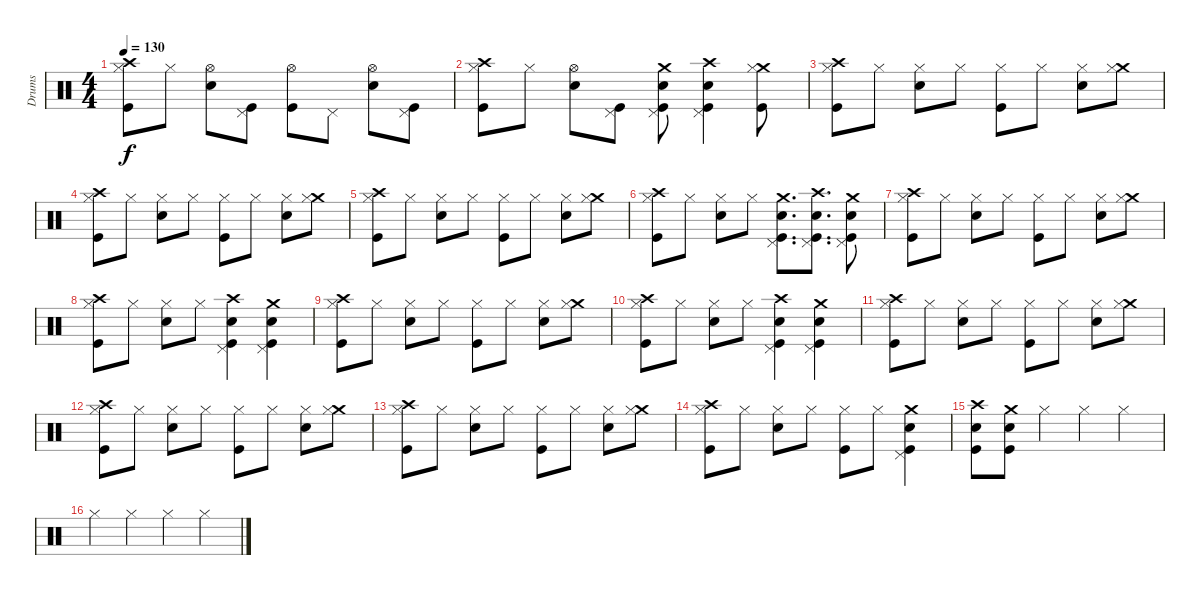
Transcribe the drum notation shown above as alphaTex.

\track ("Drums" "Drums") {instrument percussion}
\staff {score}
\articulation defaults
\ts (4 4)
\tempo 130
\clef neutral
\ks c
("Crash high (hit)" "Hi-Hat (closed)" "Kick (hit)").8{dy f} "Hi-Hat (closed)".8 ("Hi-Hat (open)" "Electric Snare (hit)").8 ("Pedal Hi-Hat (hit)" "Kick (hit)").8 ("Hi-Hat (open)" "Kick (hit)").8 "Pedal Hi-Hat (hit)".8 ("Hi-Hat (open)" "Electric Snare (hit)").8 ("Pedal Hi-Hat (hit)" "Kick (hit)").8 |
("Crash high (hit)" "Hi-Hat (closed)" "Kick (hit)").8 "Hi-Hat (closed)".8 ("Hi-Hat (open)" "Electric Snare (hit)").8 ("Pedal Hi-Hat (hit)" "Kick (hit)").8 ("Crash medium (hit)" "Pedal Hi-Hat (hit)" "Electric Snare (hit)" "Kick (hit)").8 ("Crash high (hit)" "Pedal Hi-Hat (hit)" "Electric Snare (hit)" "Kick (hit)").4 ("Crash medium (hit)" "Hi-Hat (closed)" "Kick (hit)").8 |
("Crash high (hit)" "Hi-Hat (closed)" "Kick (hit)").8 "Hi-Hat (closed)".8 ("Hi-Hat (closed)" "Electric Snare (hit)").8 "Hi-Hat (closed)".8 ("Hi-Hat (closed)" "Kick (hit)").8 "Hi-Hat (closed)".8 ("Hi-Hat (closed)" "Electric Snare (hit)").8 ("Crash medium (hit)" "Hi-Hat (closed)").8 |
("Crash high (hit)" "Hi-Hat (closed)" "Kick (hit)").8 "Hi-Hat (closed)".8 ("Hi-Hat (closed)" "Electric Snare (hit)").8 "Hi-Hat (closed)".8 ("Hi-Hat (closed)" "Kick (hit)").8 "Hi-Hat (closed)".8 ("Hi-Hat (closed)" "Electric Snare (hit)").8 ("Crash medium (hit)" "Hi-Hat (closed)").8 |
("Crash high (hit)" "Hi-Hat (closed)" "Kick (hit)").8 "Hi-Hat (closed)".8 ("Hi-Hat (closed)" "Electric Snare (hit)").8 "Hi-Hat (closed)".8 ("Hi-Hat (closed)" "Kick (hit)").8 "Hi-Hat (closed)".8 ("Hi-Hat (closed)" "Electric Snare (hit)").8 ("Crash medium (hit)" "Hi-Hat (closed)").8 |
("Crash high (hit)" "Hi-Hat (closed)" "Kick (hit)").8 "Hi-Hat (closed)".8 ("Hi-Hat (closed)" "Electric Snare (hit)").8 "Hi-Hat (closed)".8 ("Crash medium (hit)" "Pedal Hi-Hat (hit)" "Electric Snare (hit)" "Kick (hit)").8{d} ("Crash high (hit)" "Pedal Hi-Hat (hit)" "Electric Snare (hit)" "Kick (hit)").8{d} ("Crash medium (hit)" "Pedal Hi-Hat (hit)" "Electric Snare (hit)" "Kick (hit)").8 |
("Crash high (hit)" "Hi-Hat (closed)" "Kick (hit)").8 "Hi-Hat (closed)".8 ("Hi-Hat (closed)" "Electric Snare (hit)").8 "Hi-Hat (closed)".8 ("Hi-Hat (closed)" "Kick (hit)").8 "Hi-Hat (closed)".8 ("Hi-Hat (closed)" "Electric Snare (hit)").8 ("Crash medium (hit)" "Hi-Hat (closed)").8 |
("Crash high (hit)" "Hi-Hat (closed)" "Kick (hit)").8 "Hi-Hat (closed)".8 ("Hi-Hat (closed)" "Electric Snare (hit)").8 "Hi-Hat (closed)".8 ("Crash high (hit)" "Pedal Hi-Hat (hit)" "Electric Snare (hit)" "Kick (hit)").4 ("Crash medium (hit)" "Pedal Hi-Hat (hit)" "Electric Snare (hit)" "Kick (hit)").4 |
("Crash high (hit)" "Hi-Hat (closed)" "Kick (hit)").8 "Hi-Hat (closed)".8 ("Hi-Hat (closed)" "Electric Snare (hit)").8 "Hi-Hat (closed)".8 ("Hi-Hat (closed)" "Kick (hit)").8 "Hi-Hat (closed)".8 ("Hi-Hat (closed)" "Electric Snare (hit)").8 ("Crash medium (hit)" "Hi-Hat (closed)").8 |
("Crash high (hit)" "Hi-Hat (closed)" "Kick (hit)").8 "Hi-Hat (closed)".8 ("Hi-Hat (closed)" "Electric Snare (hit)").8 "Hi-Hat (closed)".8 ("Crash high (hit)" "Pedal Hi-Hat (hit)" "Electric Snare (hit)" "Kick (hit)").4 ("Crash medium (hit)" "Pedal Hi-Hat (hit)" "Electric Snare (hit)" "Kick (hit)").4 |
("Crash high (hit)" "Hi-Hat (closed)" "Kick (hit)").8 "Hi-Hat (closed)".8 ("Hi-Hat (closed)" "Electric Snare (hit)").8 "Hi-Hat (closed)".8 ("Hi-Hat (closed)" "Kick (hit)").8 "Hi-Hat (closed)".8 ("Hi-Hat (closed)" "Electric Snare (hit)").8 ("Crash medium (hit)" "Hi-Hat (closed)").8 |
("Crash high (hit)" "Hi-Hat (closed)" "Kick (hit)").8 "Hi-Hat (closed)".8 ("Hi-Hat (closed)" "Electric Snare (hit)").8 "Hi-Hat (closed)".8 ("Hi-Hat (closed)" "Kick (hit)").8 "Hi-Hat (closed)".8 ("Hi-Hat (closed)" "Electric Snare (hit)").8 ("Crash medium (hit)" "Hi-Hat (closed)").8 |
("Crash high (hit)" "Hi-Hat (closed)" "Kick (hit)").8 "Hi-Hat (closed)".8 ("Hi-Hat (closed)" "Electric Snare (hit)").8 "Hi-Hat (closed)".8 ("Hi-Hat (closed)" "Kick (hit)").8 "Hi-Hat (closed)".8 ("Hi-Hat (closed)" "Electric Snare (hit)").8 ("Crash medium (hit)" "Hi-Hat (closed)").8 |
("Crash high (hit)" "Hi-Hat (closed)" "Kick (hit)").8 "Hi-Hat (closed)".8 ("Hi-Hat (closed)" "Electric Snare (hit)").8 "Hi-Hat (closed)".8 ("Hi-Hat (closed)" "Kick (hit)").8 "Hi-Hat (closed)".8 ("Crash medium (hit)" "Pedal Hi-Hat (hit)" "Electric Snare (hit)" "Kick (hit)").4 |
("Crash high (hit)" "Electric Snare (hit)" "Kick (hit)").8 ("Crash medium (hit)" "Electric Snare (hit)" "Kick (hit)").8 "Hi-Hat (closed)".4 "Hi-Hat (closed)".4 "Hi-Hat (closed)".4 |
"Hi-Hat (closed)".4 "Hi-Hat (closed)".4 "Hi-Hat (closed)".4 "Hi-Hat (closed)".4
